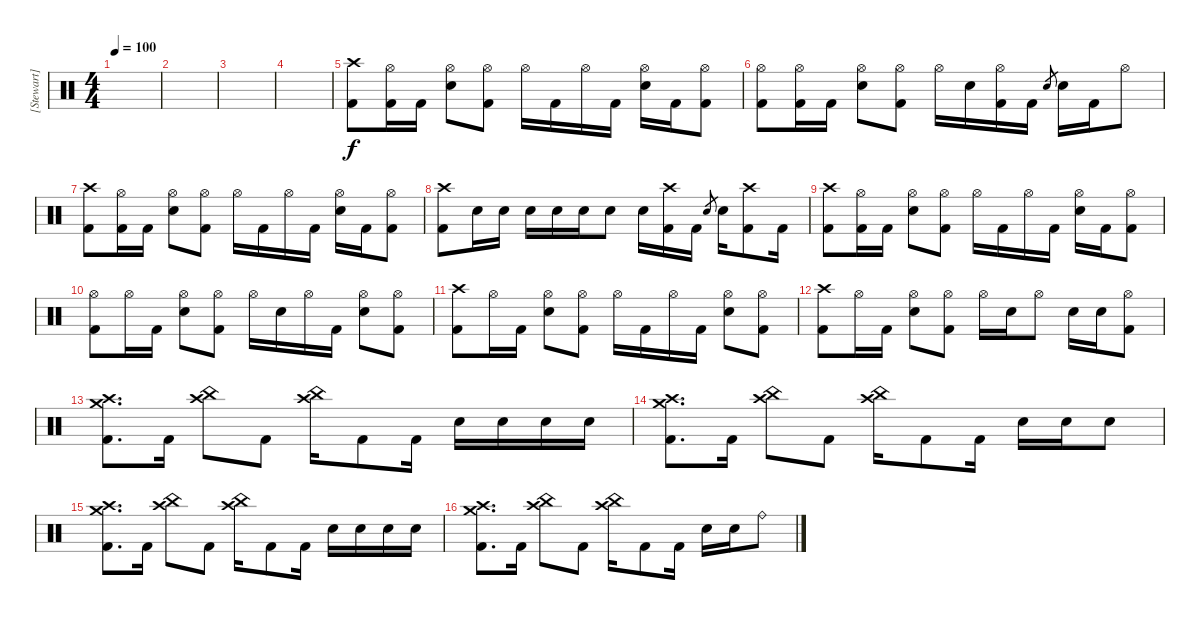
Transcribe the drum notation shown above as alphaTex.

\track ("[Stewart]" "[Stewart]") {instrument percussion}
\staff {score}
\articulation defaults
\ts (4 4)
\tempo 100
\clef neutral
\ks c
|
|
|
|
("Crash high (hit)" "Kick (hit) 2").8 ("Hi-Hat (open)" "Kick (hit) 2").16 "Kick (hit) 2".16 ("Hi-Hat (open)" "Electric Snare (hit)").8 ("Hi-Hat (open)" "Kick (hit) 2").8 "Hi-Hat (open)".16 "Kick (hit) 2".16 "Hi-Hat (open)".16 "Kick (hit) 2".16 ("Hi-Hat (open)" "Electric Snare (hit)").16 "Kick (hit) 2".16 ("Hi-Hat (open)" "Kick (hit) 2").8 |
("Hi-Hat (open)" "Kick (hit) 2").8 ("Hi-Hat (open)" "Kick (hit) 2").16 "Kick (hit) 2".16 ("Hi-Hat (open)" "Electric Snare (hit)").8 ("Hi-Hat (open)" "Kick (hit) 2").8 "Hi-Hat (open)".16 "Electric Snare (hit)".16 ("Hi-Hat (open)" "Kick (hit) 2").16 "Kick (hit) 2".16 "Electric Snare (hit)".8{gr} "Electric Snare (hit)".16 "Kick (hit) 2".16 "Hi-Hat (open)".8 |
("Crash high (hit)" "Kick (hit) 2").8 ("Hi-Hat (open)" "Kick (hit) 2").16 "Kick (hit) 2".16 ("Hi-Hat (open)" "Electric Snare (hit)").8 ("Hi-Hat (open)" "Kick (hit) 2").8 "Hi-Hat (open)".16 "Kick (hit) 2".16 "Hi-Hat (open)".16 "Kick (hit) 2".16 ("Hi-Hat (open)" "Electric Snare (hit)").16 "Kick (hit) 2".16 ("Hi-Hat (open)" "Kick (hit) 2").8 |
("Crash high (hit)" "Kick (hit) 2").8 "Electric Snare (hit)".16 "Electric Snare (hit)".16 "Electric Snare (hit)".16 "Electric Snare (hit)".16 "Electric Snare (hit)".16 "Electric Snare (hit)".8 "Electric Snare (hit)".16 ("Crash high (hit)" "Kick (hit) 2").16 "Kick (hit) 2".16 "Electric Snare (hit)".8{gr} "Electric Snare (hit)".16 ("Crash high (hit)" "Kick (hit) 2").8 "Kick (hit) 2".16 |
("Crash high (hit)" "Kick (hit) 2").8 ("Hi-Hat (open)" "Kick (hit) 2").16 "Kick (hit) 2".16 ("Hi-Hat (open)" "Electric Snare (hit)").8 ("Hi-Hat (open)" "Kick (hit) 2").8 "Hi-Hat (open)".16 "Kick (hit) 2".16 "Hi-Hat (open)".16 "Kick (hit) 2".16 ("Hi-Hat (open)" "Electric Snare (hit)").16 "Kick (hit) 2".16 ("Hi-Hat (open)" "Kick (hit) 2").8 |
("Hi-Hat (open)" "Kick (hit) 2").8 "Hi-Hat (open)".16 "Kick (hit) 2".16 ("Hi-Hat (open)" "Electric Snare (hit)").8 ("Hi-Hat (open)" "Kick (hit) 2").8 "Hi-Hat (open)".16 "Electric Snare (hit)".16 "Hi-Hat (open)".16 "Kick (hit) 2".16 ("Hi-Hat (open)" "Electric Snare (hit)").8 ("Hi-Hat (open)" "Kick (hit) 2").8 |
("Crash high (hit)" "Kick (hit) 2").8 "Hi-Hat (open)".16 "Kick (hit) 2".16 ("Hi-Hat (open)" "Electric Snare (hit)").8 ("Hi-Hat (open)" "Kick (hit) 2").8 "Hi-Hat (open)".16 "Kick (hit) 2".16 "Hi-Hat (open)".16 "Kick (hit) 2".16 ("Hi-Hat (open)" "Electric Snare (hit)").8 ("Hi-Hat (open)" "Kick (hit) 2").8 |
("Crash high (hit)" "Kick (hit) 2").8 "Hi-Hat (open)".16 "Kick (hit) 2".16 ("Hi-Hat (open)" "Electric Snare (hit)").8 ("Hi-Hat (open)" "Kick (hit) 2").8 "Hi-Hat (open)".16 "Electric Snare (hit)".16 "Hi-Hat (open)".8 "Electric Snare (hit)".16 "Electric Snare (hit)".16 ("Hi-Hat (open)" "Kick (hit) 2").8 |
("Crash high (hit)" "Crash medium (hit)" "Kick (hit) 2").8{d} "Kick (hit) 2".16 ("Crash high (hit)" "China (hit)").8 "Kick (hit) 2".8 ("Crash high (hit)" "China (hit)").16 "Kick (hit) 2".8 "Kick (hit) 2".16 "Electric Snare (hit)".16 "Electric Snare (hit)".16 "Electric Snare (hit)".16 "Electric Snare (hit)".16 |
("Crash high (hit)" "Crash medium (hit)" "Kick (hit) 2").8{d} "Kick (hit) 2".16 ("Crash high (hit)" "China (hit)").8 "Kick (hit) 2".8 ("Crash high (hit)" "China (hit)").16 "Kick (hit) 2".8 "Kick (hit) 2".16 "Electric Snare (hit)".16 "Electric Snare (hit)".16 "Electric Snare (hit)".8 |
("Crash high (hit)" "Crash medium (hit)" "Kick (hit) 2").8{d} "Kick (hit) 2".16 ("Crash high (hit)" "China (hit)").8 "Kick (hit) 2".8 ("Crash high (hit)" "China (hit)").16 "Kick (hit) 2".8 "Kick (hit) 2".16 "Electric Snare (hit)".16 "Electric Snare (hit)".16 "Electric Snare (hit)".16 "Electric Snare (hit)".16 |
("Crash high (hit)" "Crash medium (hit)" "Kick (hit) 2").8{d} "Kick (hit) 2".16 ("Crash high (hit)" "China (hit)").8 "Kick (hit) 2".8 ("Crash high (hit)" "China (hit)").16 "Kick (hit) 2".8 "Kick (hit) 2".16 "Electric Snare (hit)".16 "Electric Snare (hit)".16 "Ride (bell)".8
